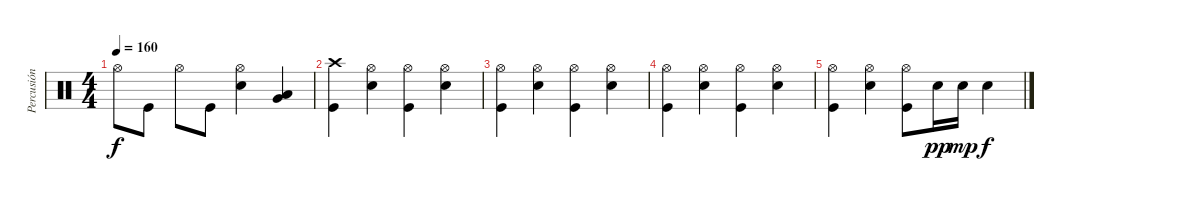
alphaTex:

\track ("Percusión" "Percusión") {instrument percussion}
\staff {score}
\articulation defaults
\ts (4 4)
\tempo 160
\clef neutral
\ks c "Hi-Hat (open)".8{dy f} "Kick (hit)".8 "Hi-Hat (open)".8 "Kick (hit)".8
("Snare (hit) 2" "Hi-Hat (open)").4 ("Low Floor Tom (hit)" "Very Low Tom (hit)").4 |
("Kick (hit)" "Crash high (hit)").4{volume 0} ("Snare (hit) 2" "Hi-Hat (open)").4 ("Kick (hit)" "Hi-Hat (open)").4 ("Snare (hit) 2" "Hi-Hat (open)").4 |
("Kick (hit)" "Hi-Hat (open)").4 ("Snare (hit) 2" "Hi-Hat (open)").4 ("Kick (hit)" "Hi-Hat (open)").4 ("Snare (hit) 2" "Hi-Hat (open)").4 |
("Kick (hit)" "Hi-Hat (open)").4 ("Snare (hit) 2" "Hi-Hat (open)").4 ("Kick (hit)" "Hi-Hat (open)").4 ("Snare (hit) 2" "Hi-Hat (open)").4 |
("Kick (hit)" "Hi-Hat (open)").4 ("Snare (hit) 2" "Hi-Hat (open)").4 ("Kick (hit)" "Hi-Hat (open)").8 "Snare (hit) 2".16{dy pp} "Snare (hit) 2".16{dy mp} "Snare (hit) 2".4{dy f}
